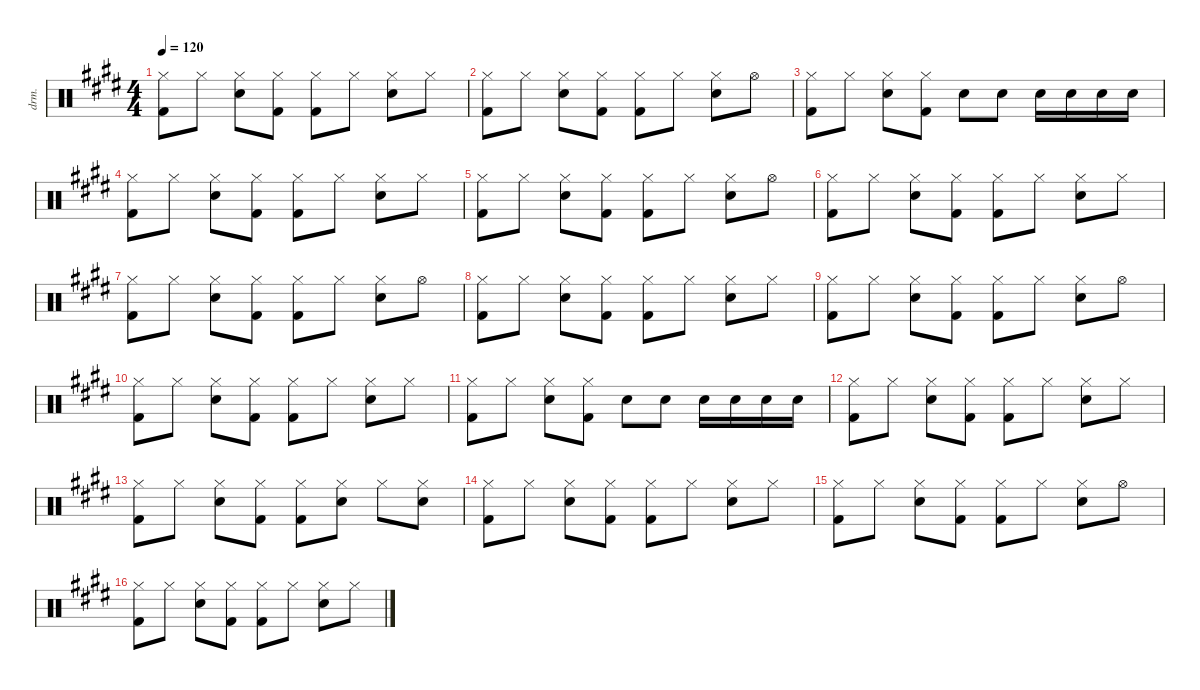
\defaultSystemsLayout 4
\hideDynamics
\bracketExtendMode nobrackets
\track ("Drum" "drm.") {instrument percussion}
\staff {score}
\articulation defaults
\ts (4 4)
\tempo 120
\clef neutral
\ks e
("Hi-Hat (closed)"{acc forcenatural} "Kick (hit) 2"{acc forcenatural}).8{dy f beam Down} "Hi-Hat (closed)"{acc forcenatural}.8{beam Down} ("Hi-Hat (closed)"{acc forcenatural} "Snare (hit) 2"{acc forcenatural}).8{beam Down} ("Hi-Hat (closed)"{acc forcenatural} "Kick (hit) 2"{acc forcenatural}).8{beam Down} ("Hi-Hat (closed)"{acc forcenatural} "Kick (hit) 2"{acc forcenatural}).8{beam Down} "Hi-Hat (closed)"{acc forcenatural}.8{beam Down} ("Hi-Hat (closed)"{acc forcenatural} "Snare (hit) 2"{acc forcenatural}).8{beam Down} "Hi-Hat (closed)"{acc forcenatural}.8{beam Down} |
("Hi-Hat (closed)"{acc forcenatural} "Kick (hit) 2"{acc forcenatural}).8{beam Down} "Hi-Hat (closed)"{acc forcenatural}.8{beam Down} ("Hi-Hat (closed)"{acc forcenatural} "Snare (hit) 2"{acc forcenatural}).8{beam Down} ("Hi-Hat (closed)"{acc forcenatural} "Kick (hit) 2"{acc forcenatural}).8{beam Down} ("Hi-Hat (closed)"{acc forcenatural} "Kick (hit) 2"{acc forcenatural}).8{beam Down} "Hi-Hat (closed)"{acc forcenatural}.8{beam Down} ("Hi-Hat (closed)"{acc forcenatural} "Snare (hit) 2"{acc forcenatural}).8{beam Down} "Hi-Hat (open)"{acc forcenatural}.8{beam Down} |
("Hi-Hat (closed)"{acc forcenatural} "Kick (hit) 2"{acc forcenatural}).8{beam Down} "Hi-Hat (closed)"{acc forcenatural}.8{beam Down} ("Hi-Hat (closed)"{acc forcenatural} "Snare (hit) 2"{acc forcenatural}).8{beam Down} ("Hi-Hat (closed)"{acc forcenatural} "Kick (hit) 2"{acc forcenatural}).8{beam Down} "Snare (hit) 2"{acc forcenatural}.8{beam Down} "Snare (hit) 2"{acc forcenatural}.8{beam Down} "Snare (hit) 2"{acc forcenatural}.16{beam Down} "Snare (hit) 2"{acc forcenatural}.16{beam Down} "Snare (hit) 2"{acc forcenatural}.16{beam Down} "Snare (hit) 2"{acc forcenatural}.16{beam Down} |
("Hi-Hat (closed)"{acc forcenatural} "Kick (hit) 2"{acc forcenatural}).8{beam Down} "Hi-Hat (closed)"{acc forcenatural}.8{beam Down} ("Hi-Hat (closed)"{acc forcenatural} "Snare (hit) 2"{acc forcenatural}).8{beam Down} ("Hi-Hat (closed)"{acc forcenatural} "Kick (hit) 2"{acc forcenatural}).8{beam Down} ("Hi-Hat (closed)"{acc forcenatural} "Kick (hit) 2"{acc forcenatural}).8{beam Down} "Hi-Hat (closed)"{acc forcenatural}.8{beam Down} ("Hi-Hat (closed)"{acc forcenatural} "Snare (hit) 2"{acc forcenatural}).8{beam Down} "Hi-Hat (closed)"{acc forcenatural}.8{beam Down} |
("Hi-Hat (closed)"{acc forcenatural} "Kick (hit) 2"{acc forcenatural}).8{beam Down} "Hi-Hat (closed)"{acc forcenatural}.8{beam Down} ("Hi-Hat (closed)"{acc forcenatural} "Snare (hit) 2"{acc forcenatural}).8{beam Down} ("Hi-Hat (closed)"{acc forcenatural} "Kick (hit) 2"{acc forcenatural}).8{beam Down} ("Hi-Hat (closed)"{acc forcenatural} "Kick (hit) 2"{acc forcenatural}).8{beam Down} "Hi-Hat (closed)"{acc forcenatural}.8{beam Down} ("Hi-Hat (closed)"{acc forcenatural} "Snare (hit) 2"{acc forcenatural}).8{beam Down} "Hi-Hat (open)"{acc forcenatural}.8{beam Down} |
("Hi-Hat (closed)"{acc forcenatural} "Kick (hit) 2"{acc forcenatural}).8{beam Down} "Hi-Hat (closed)"{acc forcenatural}.8{beam Down} ("Hi-Hat (closed)"{acc forcenatural} "Snare (hit) 2"{acc forcenatural}).8{beam Down} ("Hi-Hat (closed)"{acc forcenatural} "Kick (hit) 2"{acc forcenatural}).8{beam Down} ("Hi-Hat (closed)"{acc forcenatural} "Kick (hit) 2"{acc forcenatural}).8{beam Down} "Hi-Hat (closed)"{acc forcenatural}.8{beam Down} ("Hi-Hat (closed)"{acc forcenatural} "Snare (hit) 2"{acc forcenatural}).8{beam Down} "Hi-Hat (closed)"{acc forcenatural}.8{beam Down} |
("Hi-Hat (closed)"{acc forcenatural} "Kick (hit) 2"{acc forcenatural}).8{beam Down} "Hi-Hat (closed)"{acc forcenatural}.8{beam Down} ("Hi-Hat (closed)"{acc forcenatural} "Snare (hit) 2"{acc forcenatural}).8{beam Down} ("Hi-Hat (closed)"{acc forcenatural} "Kick (hit) 2"{acc forcenatural}).8{beam Down} ("Hi-Hat (closed)"{acc forcenatural} "Kick (hit) 2"{acc forcenatural}).8{beam Down} "Hi-Hat (closed)"{acc forcenatural}.8{beam Down} ("Hi-Hat (closed)"{acc forcenatural} "Snare (hit) 2"{acc forcenatural}).8{beam Down} "Hi-Hat (open)"{acc forcenatural}.8{beam Down} |
("Hi-Hat (closed)"{acc forcenatural} "Kick (hit) 2"{acc forcenatural}).8{beam Down} "Hi-Hat (closed)"{acc forcenatural}.8{beam Down} ("Hi-Hat (closed)"{acc forcenatural} "Snare (hit) 2"{acc forcenatural}).8{beam Down} ("Hi-Hat (closed)"{acc forcenatural} "Kick (hit) 2"{acc forcenatural}).8{beam Down} ("Hi-Hat (closed)"{acc forcenatural} "Kick (hit) 2"{acc forcenatural}).8{beam Down} "Hi-Hat (closed)"{acc forcenatural}.8{beam Down} ("Hi-Hat (closed)"{acc forcenatural} "Snare (hit) 2"{acc forcenatural}).8{beam Down} "Hi-Hat (closed)"{acc forcenatural}.8{beam Down} |
("Hi-Hat (closed)"{acc forcenatural} "Kick (hit) 2"{acc forcenatural}).8{beam Down} "Hi-Hat (closed)"{acc forcenatural}.8{beam Down} ("Hi-Hat (closed)"{acc forcenatural} "Snare (hit) 2"{acc forcenatural}).8{beam Down} ("Hi-Hat (closed)"{acc forcenatural} "Kick (hit) 2"{acc forcenatural}).8{beam Down} ("Hi-Hat (closed)"{acc forcenatural} "Kick (hit) 2"{acc forcenatural}).8{beam Down} "Hi-Hat (closed)"{acc forcenatural}.8{beam Down} ("Hi-Hat (closed)"{acc forcenatural} "Snare (hit) 2"{acc forcenatural}).8{beam Down} "Hi-Hat (open)"{acc forcenatural}.8{beam Down} |
("Hi-Hat (closed)"{acc forcenatural} "Kick (hit) 2"{acc forcenatural}).8{beam Down} "Hi-Hat (closed)"{acc forcenatural}.8{beam Down} ("Hi-Hat (closed)"{acc forcenatural} "Snare (hit) 2"{acc forcenatural}).8{beam Down} ("Hi-Hat (closed)"{acc forcenatural} "Kick (hit) 2"{acc forcenatural}).8{beam Down} ("Hi-Hat (closed)"{acc forcenatural} "Kick (hit) 2"{acc forcenatural}).8{beam Down} "Hi-Hat (closed)"{acc forcenatural}.8{beam Down} ("Hi-Hat (closed)"{acc forcenatural} "Snare (hit) 2"{acc forcenatural}).8{beam Down} "Hi-Hat (closed)"{acc forcenatural}.8{beam Down} |
("Hi-Hat (closed)"{acc forcenatural} "Kick (hit) 2"{acc forcenatural}).8{beam Down} "Hi-Hat (closed)"{acc forcenatural}.8{beam Down} ("Hi-Hat (closed)"{acc forcenatural} "Snare (hit) 2"{acc forcenatural}).8{beam Down} ("Hi-Hat (closed)"{acc forcenatural} "Kick (hit) 2"{acc forcenatural}).8{beam Down} "Snare (hit) 2"{acc forcenatural}.8{beam Down} "Snare (hit) 2"{acc forcenatural}.8{beam Down} "Snare (hit) 2"{acc forcenatural}.16{beam Down} "Snare (hit) 2"{acc forcenatural}.16{beam Down} "Snare (hit) 2"{acc forcenatural}.16{beam Down} "Snare (hit) 2"{acc forcenatural}.16{beam Down} |
("Hi-Hat (closed)"{acc forcenatural} "Kick (hit) 2"{acc forcenatural}).8{beam Down} "Hi-Hat (closed)"{acc forcenatural}.8{beam Down} ("Hi-Hat (closed)"{acc forcenatural} "Snare (hit) 2"{acc forcenatural}).8{beam Down} ("Hi-Hat (closed)"{acc forcenatural} "Kick (hit) 2"{acc forcenatural}).8{beam Down} ("Hi-Hat (closed)"{acc forcenatural} "Kick (hit) 2"{acc forcenatural}).8{beam Down} "Hi-Hat (closed)"{acc forcenatural}.8{beam Down} ("Hi-Hat (closed)"{acc forcenatural} "Snare (hit) 2"{acc forcenatural}).8{beam Down} "Hi-Hat (closed)"{acc forcenatural}.8{beam Down} |
("Hi-Hat (closed)"{acc forcenatural} "Kick (hit) 2"{acc forcenatural}).8{beam Down} "Hi-Hat (closed)"{acc forcenatural}.8{beam Down} ("Hi-Hat (closed)"{acc forcenatural} "Snare (hit) 2"{acc forcenatural}).8{beam Down} ("Hi-Hat (closed)"{acc forcenatural} "Kick (hit) 2"{acc forcenatural}).8{beam Down} ("Hi-Hat (closed)"{acc forcenatural} "Kick (hit) 2"{acc forcenatural}).8{beam Down} ("Hi-Hat (closed)"{acc forcenatural} "Snare (hit) 2"{acc forcenatural}).8{beam Down} "Hi-Hat (closed)"{acc forcenatural}.8{beam Down} ("Hi-Hat (closed)"{acc forcenatural} "Snare (hit) 2"{acc forcenatural}).8{beam Down} |
("Hi-Hat (closed)"{acc forcenatural} "Kick (hit) 2"{acc forcenatural}).8{beam Down} "Hi-Hat (closed)"{acc forcenatural}.8{beam Down} ("Hi-Hat (closed)"{acc forcenatural} "Snare (hit) 2"{acc forcenatural}).8{beam Down} ("Hi-Hat (closed)"{acc forcenatural} "Kick (hit) 2"{acc forcenatural}).8{beam Down} ("Hi-Hat (closed)"{acc forcenatural} "Kick (hit) 2"{acc forcenatural}).8{beam Down} "Hi-Hat (closed)"{acc forcenatural}.8{beam Down} ("Hi-Hat (closed)"{acc forcenatural} "Snare (hit) 2"{acc forcenatural}).8{beam Down} "Hi-Hat (closed)"{acc forcenatural}.8{beam Down} |
("Hi-Hat (closed)"{acc forcenatural} "Kick (hit) 2"{acc forcenatural}).8{beam Down} "Hi-Hat (closed)"{acc forcenatural}.8{beam Down} ("Hi-Hat (closed)"{acc forcenatural} "Snare (hit) 2"{acc forcenatural}).8{beam Down} ("Hi-Hat (closed)"{acc forcenatural} "Kick (hit) 2"{acc forcenatural}).8{beam Down} ("Hi-Hat (closed)"{acc forcenatural} "Kick (hit) 2"{acc forcenatural}).8{beam Down} "Hi-Hat (closed)"{acc forcenatural}.8{beam Down} ("Hi-Hat (closed)"{acc forcenatural} "Snare (hit) 2"{acc forcenatural}).8{beam Down} "Hi-Hat (open)"{acc forcenatural}.8{beam Down} |
("Hi-Hat (closed)"{acc forcenatural} "Kick (hit) 2"{acc forcenatural}).8{beam Down} "Hi-Hat (closed)"{acc forcenatural}.8{beam Down} ("Hi-Hat (closed)"{acc forcenatural} "Snare (hit) 2"{acc forcenatural}).8{beam Down} ("Hi-Hat (closed)"{acc forcenatural} "Kick (hit) 2"{acc forcenatural}).8{beam Down} ("Hi-Hat (closed)"{acc forcenatural} "Kick (hit) 2"{acc forcenatural}).8{beam Down} "Hi-Hat (closed)"{acc forcenatural}.8{beam Down} ("Hi-Hat (closed)"{acc forcenatural} "Snare (hit) 2"{acc forcenatural}).8{beam Down} "Hi-Hat (closed)"{acc forcenatural}.8{beam Down}
